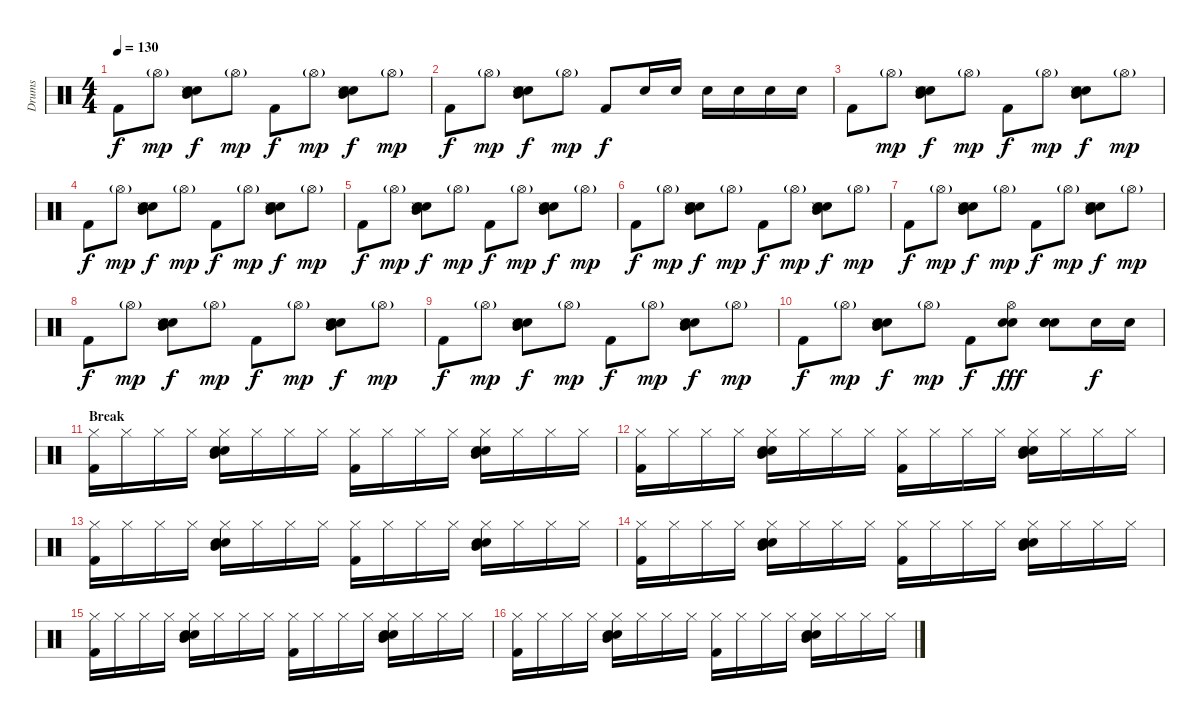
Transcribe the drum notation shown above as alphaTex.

\track ("Drums" "Drums") {instrument percussion}
\staff {score}
\articulation defaults
\ts (4 4)
\tempo 130
\clef neutral
\ks c "Kick (hit) 2".8{dy f} "Hi-Hat (open)"{g}.8{dy mp}
("Hand Clap (hit)" "Snare (side stick) 3" "Electric Snare (hit)" "Mid Tom (hit)").8{dy f} "Hi-Hat (open)"{g}.8{dy mp} "Kick (hit) 2".8{dy f} "Hi-Hat (open)"{g}.8{dy mp} ("Hand Clap (hit)" "Snare (side stick) 3" "Electric Snare (hit)" "Mid Tom (hit)").8{dy f} "Hi-Hat (open)"{g}.8{dy mp} |
"Kick (hit) 2".8{dy f} "Hi-Hat (open)"{g}.8{dy mp} ("Hand Clap (hit)" "Snare (side stick) 3" "Electric Snare (hit)" "Mid Tom (hit)").8{dy f} "Hi-Hat (open)"{g}.8{dy mp} "Kick (hit) 2".8{dy f} "Electric Snare (hit)".16 "Electric Snare (hit)".16 "Electric Snare (hit)".16 "Electric Snare (hit)".16 "Electric Snare (hit)".16 "Electric Snare (hit)".16 |
"Kick (hit) 2".8 "Hi-Hat (open)"{g}.8{dy mp} ("Hand Clap (hit)" "Snare (side stick) 3" "Electric Snare (hit)" "Mid Tom (hit)").8{dy f} "Hi-Hat (open)"{g}.8{dy mp} "Kick (hit) 2".8{dy f} "Hi-Hat (open)"{g}.8{dy mp} ("Hand Clap (hit)" "Snare (side stick) 3" "Electric Snare (hit)" "Mid Tom (hit)").8{dy f} "Hi-Hat (open)"{g}.8{dy mp} |
"Kick (hit) 2".8{dy f} "Hi-Hat (open)"{g}.8{dy mp} ("Hand Clap (hit)" "Snare (side stick) 3" "Electric Snare (hit)" "Mid Tom (hit)").8{dy f} "Hi-Hat (open)"{g}.8{dy mp} "Kick (hit) 2".8{dy f} "Hi-Hat (open)"{g}.8{dy mp} ("Hand Clap (hit)" "Snare (side stick) 3" "Electric Snare (hit)" "Mid Tom (hit)").8{dy f} "Hi-Hat (open)"{g}.8{dy mp} |
"Kick (hit) 2".8{dy f} "Hi-Hat (open)"{g}.8{dy mp} ("Hand Clap (hit)" "Snare (side stick) 3" "Electric Snare (hit)" "Mid Tom (hit)").8{dy f} "Hi-Hat (open)"{g}.8{dy mp} "Kick (hit) 2".8{dy f} "Hi-Hat (open)"{g}.8{dy mp} ("Hand Clap (hit)" "Snare (side stick) 3" "Electric Snare (hit)" "Mid Tom (hit)").8{dy f} "Hi-Hat (open)"{g}.8{dy mp} |
"Kick (hit) 2".8{dy f} "Hi-Hat (open)"{g}.8{dy mp} ("Hand Clap (hit)" "Snare (side stick) 3" "Electric Snare (hit)" "Mid Tom (hit)").8{dy f} "Hi-Hat (open)"{g}.8{dy mp} "Kick (hit) 2".8{dy f} "Hi-Hat (open)"{g}.8{dy mp} ("Hand Clap (hit)" "Snare (side stick) 3" "Electric Snare (hit)" "Mid Tom (hit)").8{dy f} "Hi-Hat (open)"{g}.8{dy mp} |
"Kick (hit) 2".8{dy f} "Hi-Hat (open)"{g}.8{dy mp} ("Hand Clap (hit)" "Snare (side stick) 3" "Electric Snare (hit)" "Mid Tom (hit)").8{dy f} "Hi-Hat (open)"{g}.8{dy mp} "Kick (hit) 2".8{dy f} "Hi-Hat (open)"{g}.8{dy mp} ("Hand Clap (hit)" "Snare (side stick) 3" "Electric Snare (hit)" "Mid Tom (hit)").8{dy f} "Hi-Hat (open)"{g}.8{dy mp} |
"Kick (hit) 2".8{dy f} "Hi-Hat (open)"{g}.8{dy mp} ("Hand Clap (hit)" "Snare (side stick) 3" "Electric Snare (hit)" "Mid Tom (hit)").8{dy f} "Hi-Hat (open)"{g}.8{dy mp} "Kick (hit) 2".8{dy f} "Hi-Hat (open)"{g}.8{dy mp} ("Hand Clap (hit)" "Snare (side stick) 3" "Electric Snare (hit)" "Mid Tom (hit)").8{dy f} "Hi-Hat (open)"{g}.8{dy mp} |
"Kick (hit) 2".8{dy f} "Hi-Hat (open)"{g}.8{dy mp} ("Hand Clap (hit)" "Snare (side stick) 3" "Electric Snare (hit)" "Mid Tom (hit)").8{dy f} "Hi-Hat (open)"{g}.8{dy mp} "Kick (hit) 2".8{dy f} "Hi-Hat (open)"{g}.8{dy mp} ("Hand Clap (hit)" "Snare (side stick) 3" "Electric Snare (hit)" "Mid Tom (hit)").8{dy f} "Hi-Hat (open)"{g}.8{dy mp} |
"Kick (hit) 2".8{dy f} "Hi-Hat (open)"{g}.8{dy mp} ("Hand Clap (hit)" "Snare (side stick) 3" "Electric Snare (hit)" "Mid Tom (hit)").8{dy f} "Hi-Hat (open)"{g}.8{dy mp} "Kick (hit) 2".8{dy f} ("Hand Clap (hit)" "Hi-Hat (open)" "Hand Clap (hit)").8{dy fff} ("Hand Clap (hit)" "Snare (hit) 2" "Hand Clap (hit)").8 "Electric Snare (hit)".16{dy f} "Electric Snare (hit)".16 |
\section ("" "Break")
("Hi-Hat (closed)" "Kick (hit) 2").16 "Hi-Hat (closed)".16 "Hi-Hat (closed)".16 "Hi-Hat (closed)".16 ("Hand Clap (hit)" "Hi-Hat (closed)" "Electric Snare (hit)" "Mid Tom (hit)").16 "Hi-Hat (closed)".16 "Hi-Hat (closed)".16 "Hi-Hat (closed)".16 ("Hi-Hat (closed)" "Kick (hit) 2").16 "Hi-Hat (closed)".16 "Hi-Hat (closed)".16 "Hi-Hat (closed)".16 ("Hand Clap (hit)" "Hi-Hat (closed)" "Electric Snare (hit)" "Mid Tom (hit)").16 "Hi-Hat (closed)".16 "Hi-Hat (closed)".16 "Hi-Hat (closed)".16 |
("Hi-Hat (closed)" "Kick (hit) 2").16 "Hi-Hat (closed)".16 "Hi-Hat (closed)".16 "Hi-Hat (closed)".16 ("Hand Clap (hit)" "Hi-Hat (closed)" "Electric Snare (hit)" "Mid Tom (hit)").16 "Hi-Hat (closed)".16 "Hi-Hat (closed)".16 "Hi-Hat (closed)".16 ("Hi-Hat (closed)" "Kick (hit) 2").16 "Hi-Hat (closed)".16 "Hi-Hat (closed)".16 "Hi-Hat (closed)".16 ("Hand Clap (hit)" "Hi-Hat (closed)" "Electric Snare (hit)" "Mid Tom (hit)").16 "Hi-Hat (closed)".16 "Hi-Hat (closed)".16 "Hi-Hat (closed)".16 |
("Hi-Hat (closed)" "Kick (hit) 2").16 "Hi-Hat (closed)".16 "Hi-Hat (closed)".16 "Hi-Hat (closed)".16 ("Hand Clap (hit)" "Hi-Hat (closed)" "Electric Snare (hit)" "Mid Tom (hit)").16 "Hi-Hat (closed)".16 "Hi-Hat (closed)".16 "Hi-Hat (closed)".16 ("Hi-Hat (closed)" "Kick (hit) 2").16 "Hi-Hat (closed)".16 "Hi-Hat (closed)".16 "Hi-Hat (closed)".16 ("Hand Clap (hit)" "Hi-Hat (closed)" "Electric Snare (hit)" "Mid Tom (hit)").16 "Hi-Hat (closed)".16 "Hi-Hat (closed)".16 "Hi-Hat (closed)".16 |
("Hi-Hat (closed)" "Kick (hit) 2").16 "Hi-Hat (closed)".16 "Hi-Hat (closed)".16 "Hi-Hat (closed)".16 ("Hand Clap (hit)" "Hi-Hat (closed)" "Electric Snare (hit)" "Mid Tom (hit)").16 "Hi-Hat (closed)".16 "Hi-Hat (closed)".16 "Hi-Hat (closed)".16 ("Hi-Hat (closed)" "Kick (hit) 2").16 "Hi-Hat (closed)".16 "Hi-Hat (closed)".16 "Hi-Hat (closed)".16 ("Hand Clap (hit)" "Hi-Hat (closed)" "Electric Snare (hit)" "Mid Tom (hit)").16 "Hi-Hat (closed)".16 "Hi-Hat (closed)".16 "Hi-Hat (closed)".16 |
("Hi-Hat (closed)" "Kick (hit) 2").16 "Hi-Hat (closed)".16 "Hi-Hat (closed)".16 "Hi-Hat (closed)".16 ("Hand Clap (hit)" "Hi-Hat (closed)" "Electric Snare (hit)" "Mid Tom (hit)").16 "Hi-Hat (closed)".16 "Hi-Hat (closed)".16 "Hi-Hat (closed)".16 ("Hi-Hat (closed)" "Kick (hit) 2").16 "Hi-Hat (closed)".16 "Hi-Hat (closed)".16 "Hi-Hat (closed)".16 ("Hand Clap (hit)" "Hi-Hat (closed)" "Electric Snare (hit)" "Mid Tom (hit)").16 "Hi-Hat (closed)".16 "Hi-Hat (closed)".16 "Hi-Hat (closed)".16 |
("Hi-Hat (closed)" "Kick (hit) 2").16 "Hi-Hat (closed)".16 "Hi-Hat (closed)".16 "Hi-Hat (closed)".16 ("Hand Clap (hit)" "Hi-Hat (closed)" "Electric Snare (hit)" "Mid Tom (hit)").16 "Hi-Hat (closed)".16 "Hi-Hat (closed)".16 "Hi-Hat (closed)".16 ("Hi-Hat (closed)" "Kick (hit) 2").16 "Hi-Hat (closed)".16 "Hi-Hat (closed)".16 "Hi-Hat (closed)".16 ("Hand Clap (hit)" "Hi-Hat (closed)" "Electric Snare (hit)" "Mid Tom (hit)").16 "Hi-Hat (closed)".16 "Hi-Hat (closed)".16 "Hi-Hat (closed)".16
